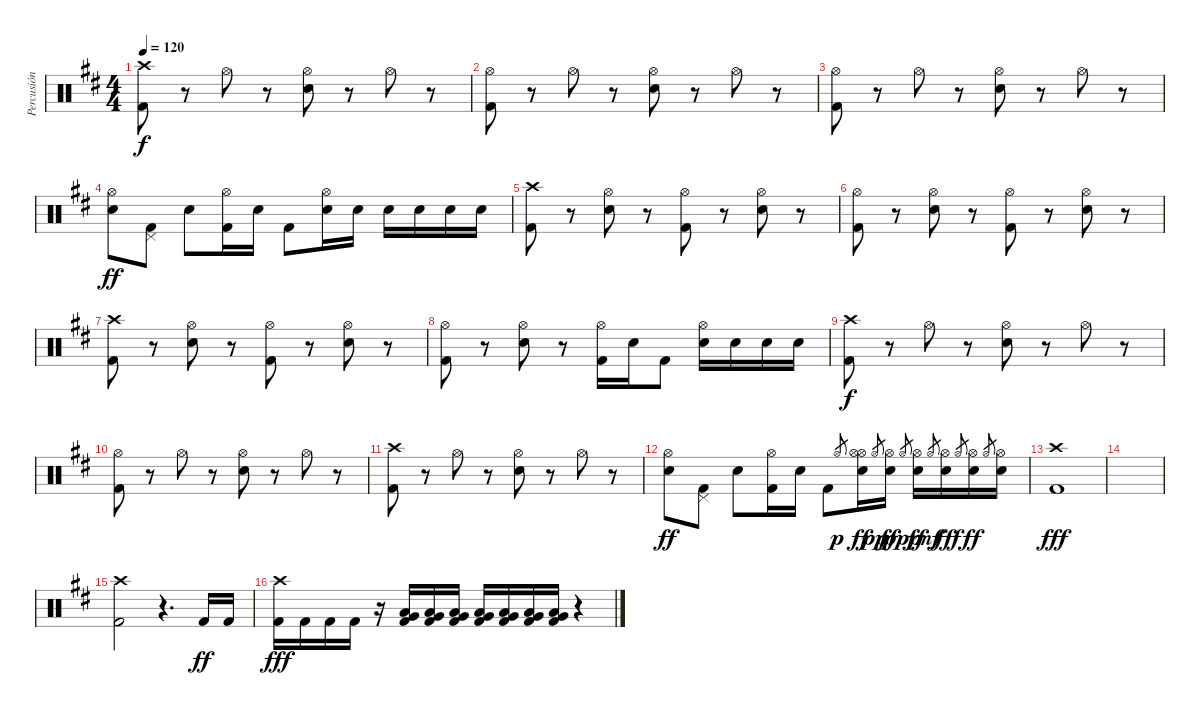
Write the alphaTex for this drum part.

\track ("Percusión" "Percusión") {instrument percussion}
\staff {score}
\articulation defaults
\ts (4 4)
\tempo 120
\clef neutral
\ks d
("Crash high (hit)" "Kick (hit) 2").8{dy f} r.8 "Hi-Hat (open)".8 r.8 ("Hi-Hat (open)" "Electric Snare (hit)").8 r.8 "Hi-Hat (open)".8 r.8 |
("Hi-Hat (open)" "Kick (hit) 2").8 r.8 "Hi-Hat (open)".8 r.8 ("Hi-Hat (open)" "Electric Snare (hit)").8 r.8 "Hi-Hat (open)".8 r.8 |
("Hi-Hat (open)" "Kick (hit) 2").8 r.8 "Hi-Hat (open)".8 r.8 ("Hi-Hat (open)" "Electric Snare (hit)").8 r.8 "Hi-Hat (open)".8 r.8 |
("Hi-Hat (open)" "Electric Snare (hit)").8{dy ff} ("Pedal Hi-Hat (hit)" "Kick (hit) 2").8 "Electric Snare (hit)".8 ("Hi-Hat (open)" "Kick (hit) 2").16 "Electric Snare (hit)".16 "Kick (hit) 2".8 ("Hi-Hat (open)" "Electric Snare (hit)").16 "Electric Snare (hit)".16 "Electric Snare (hit)".16 "Electric Snare (hit)".16 "Electric Snare (hit)".16 "Electric Snare (hit)".16 |
("Crash high (hit)" "Kick (hit) 2").8 r.8 ("Hi-Hat (open)" "Electric Snare (hit)").8 r.8 ("Hi-Hat (open)" "Kick (hit) 2").8 r.8 ("Hi-Hat (open)" "Electric Snare (hit)").8 r.8 |
("Hi-Hat (open)" "Kick (hit) 2").8 r.8 ("Hi-Hat (open)" "Electric Snare (hit)").8 r.8 ("Hi-Hat (open)" "Kick (hit) 2").8 r.8 ("Hi-Hat (open)" "Electric Snare (hit)").8 r.8 |
("Crash high (hit)" "Kick (hit) 2").8 r.8 ("Hi-Hat (open)" "Electric Snare (hit)").8 r.8 ("Hi-Hat (open)" "Kick (hit) 2").8 r.8 ("Hi-Hat (open)" "Electric Snare (hit)").8 r.8 |
("Hi-Hat (open)" "Kick (hit) 2").8 r.8 ("Hi-Hat (open)" "Electric Snare (hit)").8 r.8 ("Hi-Hat (open)" "Kick (hit) 2").16 "Electric Snare (hit)".16 "Kick (hit) 2".8 ("Hi-Hat (open)" "Electric Snare (hit)").16 "Electric Snare (hit)".16 "Electric Snare (hit)".16 "Electric Snare (hit)".16 |
("Crash high (hit)" "Kick (hit) 2").8{dy f} r.8 "Hi-Hat (open)".8 r.8 ("Hi-Hat (open)" "Electric Snare (hit)").8 r.8 "Hi-Hat (open)".8 r.8 |
("Hi-Hat (open)" "Kick (hit) 2").8 r.8 "Hi-Hat (open)".8 r.8 ("Hi-Hat (open)" "Electric Snare (hit)").8 r.8 "Hi-Hat (open)".8 r.8 |
("Crash high (hit)" "Kick (hit) 2").8 r.8 "Hi-Hat (open)".8 r.8 ("Hi-Hat (open)" "Electric Snare (hit)").8 r.8 "Hi-Hat (open)".8 r.8 |
("Hi-Hat (open)" "Electric Snare (hit)").8{dy ff} ("Pedal Hi-Hat (hit)" "Kick (hit) 2").8 "Electric Snare (hit)".8 ("Hi-Hat (open)" "Kick (hit) 2").16 "Electric Snare (hit)".16 "Kick (hit) 2".8 "Hi-Hat (open)".8{gr dy p} ("Hi-Hat (open)" "Hi-Hat (open)" "Electric Snare (hit)").16{dy ff} "Hi-Hat (open)".8{gr dy pp} ("Hi-Hat (open)" "Electric Snare (hit)").16{dy ff} "Hi-Hat (open)".8{gr dy ppp} ("Hi-Hat (open)" "Electric Snare (hit)").16{dy ff} "Hi-Hat (open)".8{gr dy mf} ("Hi-Hat (open)" "Electric Snare (hit)").16{dy ff} "Hi-Hat (open)".8{gr dy f} ("Hi-Hat (open)" "Electric Snare (hit)").16{dy ff} "Hi-Hat (open)".8{gr} ("Hi-Hat (open)" "Electric Snare (hit)").16 |
("Crash high (hit)" "Kick (hit) 2").1{dy fff} |
|
("Crash high (hit)" "Kick (hit) 2").2 r.4{d} "Kick (hit) 2".16{dy ff} "Kick (hit) 2".16 |
("Crash high (hit)" "Kick (hit) 2").16{dy fff} "Kick (hit) 2".16 "Kick (hit) 2".16 "Kick (hit) 2".16 r.16 ("Very Low Tom (hit)" "Low Floor Tom (hit)" "Kick (hit) 2").16 ("Very Low Tom (hit)" "Low Floor Tom (hit)" "Kick (hit) 2").16 ("Very Low Tom (hit)" "Low Floor Tom (hit)" "Kick (hit) 2").16 ("Very Low Tom (hit)" "Low Floor Tom (hit)" "Kick (hit) 2").16 ("Very Low Tom (hit)" "Low Floor Tom (hit)" "Kick (hit) 2").16 ("Very Low Tom (hit)" "Low Floor Tom (hit)" "Kick (hit) 2").16 ("Very Low Tom (hit)" "Low Floor Tom (hit)" "Kick (hit) 2").16 r.4
